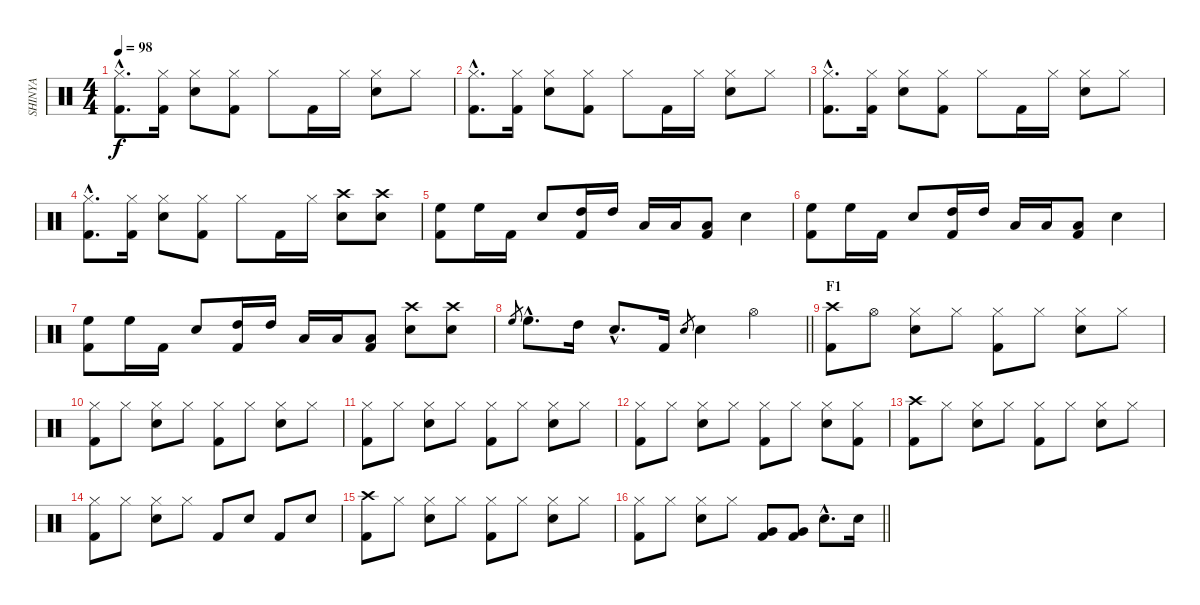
\track ("SHINYA" "SHINYA") {instrument percussion}
\staff {score}
\articulation defaults
\ts (4 4)
\tempo 98
\clef neutral
\ks c
("Hi-Hat (closed)"{hac} "Kick (hit) 2"{hac}).8{d dy f} ("Hi-Hat (closed)" "Kick (hit) 2").16 ("Hi-Hat (closed)" "Snare (hit) 2").8 ("Hi-Hat (closed)" "Kick (hit) 2").8 "Hi-Hat (closed)".8 "Kick (hit) 2".16 "Hi-Hat (closed)".16 ("Hi-Hat (closed)" "Snare (hit) 2").8 "Hi-Hat (closed)".8 |
("Hi-Hat (closed)"{hac} "Kick (hit) 2"{hac}).8{d} ("Hi-Hat (closed)" "Kick (hit) 2").16 ("Hi-Hat (closed)" "Snare (hit) 2").8 ("Hi-Hat (closed)" "Kick (hit) 2").8 "Hi-Hat (closed)".8 "Kick (hit) 2".16 "Hi-Hat (closed)".16 ("Hi-Hat (closed)" "Snare (hit) 2").8 "Hi-Hat (closed)".8 |
("Hi-Hat (closed)"{hac} "Kick (hit) 2"{hac}).8{d} ("Hi-Hat (closed)" "Kick (hit) 2").16 ("Hi-Hat (closed)" "Snare (hit) 2").8 ("Hi-Hat (closed)" "Kick (hit) 2").8 "Hi-Hat (closed)".8 "Kick (hit) 2".16 "Hi-Hat (closed)".16 ("Hi-Hat (closed)" "Snare (hit) 2").8 "Hi-Hat (closed)".8 |
("Hi-Hat (closed)"{hac} "Kick (hit) 2"{hac}).8{d} ("Hi-Hat (closed)" "Kick (hit) 2").16 ("Hi-Hat (closed)" "Snare (hit) 2").8 ("Hi-Hat (closed)" "Kick (hit) 2").8 "Hi-Hat (closed)".8 "Kick (hit) 2".16 "Hi-Hat (closed)".16 ("Crash high (hit)" "Snare (hit) 2").8 ("Crash high (hit)" "Snare (hit) 2").8 |
("High Floor Tom (hit)" "Kick (hit) 2").8 "High Floor Tom (hit)".16 "Kick (hit) 2".16 "Snare (hit) 2".8 ("High Tom (hit)" "Kick (hit) 2").16 "High Tom (hit)".16 "Low Tom (hit)".16 "Low Tom (hit)".16 ("Kick (hit) 2" "Low Tom (hit)").8 "Snare (hit) 2".4 |
("High Floor Tom (hit)" "Kick (hit) 2").8 "High Floor Tom (hit)".16 "Kick (hit) 2".16 "Snare (hit) 2".8 ("High Tom (hit)" "Kick (hit) 2").16 "High Tom (hit)".16 "Low Tom (hit)".16 "Low Tom (hit)".16 ("Kick (hit) 2" "Low Tom (hit)").8 "Snare (hit) 2".4 |
("High Floor Tom (hit)" "Kick (hit) 2").8 "High Floor Tom (hit)".16 "Kick (hit) 2".16 "Snare (hit) 2".8 ("High Tom (hit)" "Kick (hit) 2").16 "High Tom (hit)".16 "Low Tom (hit)".16 "Low Tom (hit)".16 ("Kick (hit) 2" "Low Tom (hit)").8 ("Snare (hit) 2" "Crash high (hit)").8 ("Snare (hit) 2" "Crash high (hit)").8 |
\barLineRight lightlight "High Floor Tom (hit)".8{gr} "High Floor Tom (hit)"{hac}.8{d} "High Tom (hit)".16 "Snare (hit) 2"{hac}.8{d} "Kick (hit) 2".16 "Snare (hit) 2".8{gr} "Snare (hit) 2".4 "Hi-Hat (open)".4
|
\section ("" "F1")
("Crash high (hit)" "Kick (hit) 2").8 "Hi-Hat (open)".8 ("Hi-Hat (closed)" "Snare (hit) 2").8 "Hi-Hat (closed)".8 ("Hi-Hat (closed)" "Kick (hit) 2").8 "Hi-Hat (closed)".8 ("Hi-Hat (closed)" "Snare (hit) 2").8 "Hi-Hat (closed)".8 |
("Hi-Hat (closed)" "Kick (hit) 2").8 "Hi-Hat (closed)".8 ("Hi-Hat (closed)" "Snare (hit) 2").8 "Hi-Hat (closed)".8 ("Hi-Hat (closed)" "Kick (hit) 2").8 "Hi-Hat (closed)".8 ("Hi-Hat (closed)" "Snare (hit) 2").8 "Hi-Hat (closed)".8 |
("Hi-Hat (closed)" "Kick (hit) 2").8 "Hi-Hat (closed)".8 ("Hi-Hat (closed)" "Snare (hit) 2").8 "Hi-Hat (closed)".8 ("Hi-Hat (closed)" "Kick (hit) 2").8 "Hi-Hat (closed)".8 ("Hi-Hat (closed)" "Snare (hit) 2").8 "Hi-Hat (closed)".8 |
("Hi-Hat (closed)" "Kick (hit) 2").8 "Hi-Hat (closed)".8 ("Hi-Hat (closed)" "Snare (hit) 2").8 "Hi-Hat (closed)".8 ("Hi-Hat (closed)" "Kick (hit) 2").8 "Hi-Hat (closed)".8 ("Hi-Hat (closed)" "Snare (hit) 2").8 ("Hi-Hat (closed)" "Kick (hit) 2").8 |
("Crash high (hit)" "Kick (hit) 2").8 "Hi-Hat (closed)".8 ("Hi-Hat (closed)" "Snare (hit) 2").8 "Hi-Hat (closed)".8 ("Hi-Hat (closed)" "Kick (hit) 2").8 "Hi-Hat (closed)".8 ("Hi-Hat (closed)" "Snare (hit) 2").8 "Hi-Hat (closed)".8 |
("Hi-Hat (closed)" "Kick (hit) 2").8 "Hi-Hat (closed)".8 ("Hi-Hat (closed)" "Snare (hit) 2").8 "Hi-Hat (closed)".8 "Kick (hit) 2".8 "Snare (hit) 2".8 "Kick (hit) 2".8 "Snare (hit) 2".8 |
("Crash high (hit)" "Kick (hit) 2").8 "Hi-Hat (closed)".8 ("Hi-Hat (closed)" "Snare (hit) 2").8 "Hi-Hat (closed)".8 ("Hi-Hat (closed)" "Kick (hit) 2").8 "Hi-Hat (closed)".8 ("Hi-Hat (closed)" "Snare (hit) 2").8 "Hi-Hat (closed)".8 |
\barLineRight lightlight
("Hi-Hat (closed)" "Kick (hit) 2").8 "Hi-Hat (closed)".8 ("Hi-Hat (closed)" "Snare (hit) 2").8 "Hi-Hat (closed)".8 ("Very Low Tom (hit)" "Kick (hit) 2").8 ("Very Low Tom (hit)" "Kick (hit) 2").8 "Snare (hit) 2"{hac}.8{d} "Snare (hit) 2".16
